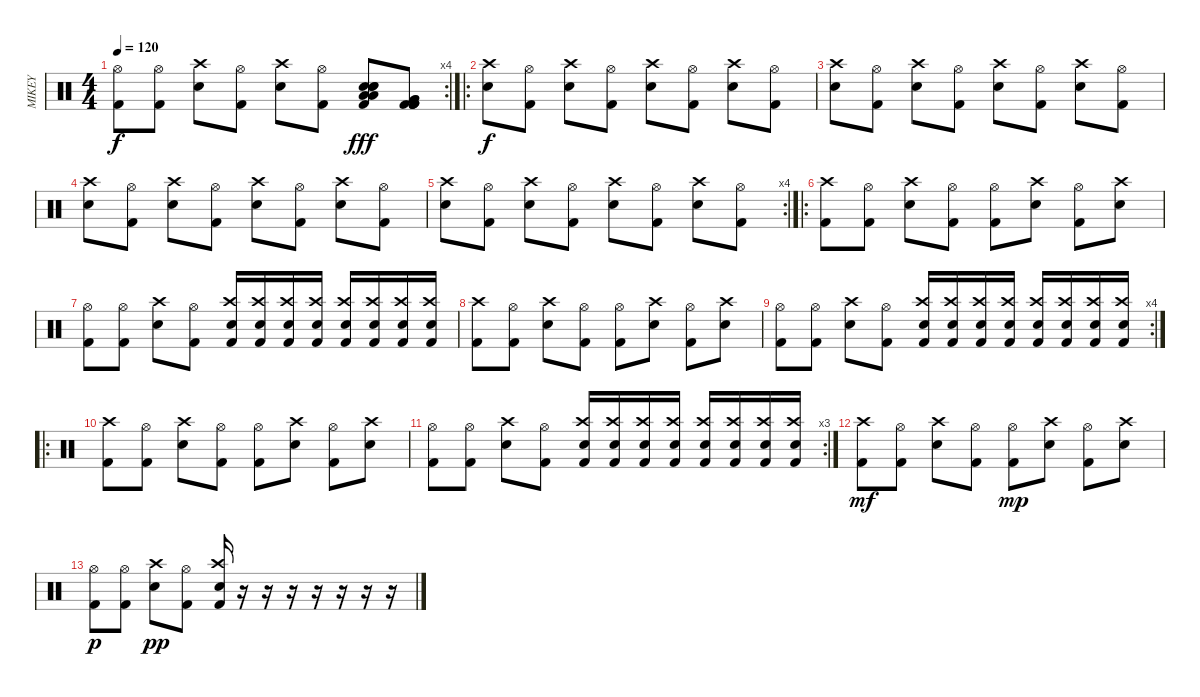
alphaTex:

\track ("MIKEY" "MIKEY") {instrument percussion}
\staff {score}
\articulation defaults
\rc 4
\ts (4 4)
\tempo 120
\clef neutral
\ks c
("Hi-Hat (open)" "Kick (hit) 2").8{dy f} ("Hi-Hat (open)" "Kick (hit) 2").8 ("Crash high (hit)" "Snare (hit) 2").8 ("Hi-Hat (open)" "Kick (hit) 2").8 ("Crash high (hit)" "Snare (hit) 2").8 ("Hi-Hat (open)" "Kick (hit) 2").8 ("Snare (hit) 2" "Snare (hit) 2" "Kick (hit) 2" "Low Tom (hit)" "Low Tom (hit)" "Snare (hit) 2").8{dy fff} ("Kick (hit) 2" "Kick (hit) 2" "Kick (hit) 2" "Very Low Tom (hit)" "Very Low Tom (hit)" "Kick (hit) 2").8 |
\ro
("Crash high (hit)" "Snare (hit) 2").8{dy f} ("Hi-Hat (open)" "Kick (hit) 2").8 ("Crash high (hit)" "Snare (hit) 2").8 ("Hi-Hat (open)" "Kick (hit) 2").8 ("Crash high (hit)" "Snare (hit) 2").8 ("Hi-Hat (open)" "Kick (hit) 2").8 ("Crash high (hit)" "Snare (hit) 2").8 ("Hi-Hat (open)" "Kick (hit) 2").8 |
("Crash high (hit)" "Snare (hit) 2").8 ("Hi-Hat (open)" "Kick (hit) 2").8 ("Crash high (hit)" "Snare (hit) 2").8 ("Hi-Hat (open)" "Kick (hit) 2").8 ("Crash high (hit)" "Snare (hit) 2").8 ("Hi-Hat (open)" "Kick (hit) 2").8 ("Crash high (hit)" "Snare (hit) 2").8 ("Hi-Hat (open)" "Kick (hit) 2").8 |
("Crash high (hit)" "Snare (hit) 2").8 ("Hi-Hat (open)" "Kick (hit) 2").8 ("Crash high (hit)" "Snare (hit) 2").8 ("Hi-Hat (open)" "Kick (hit) 2").8 ("Crash high (hit)" "Snare (hit) 2").8 ("Hi-Hat (open)" "Kick (hit) 2").8 ("Crash high (hit)" "Snare (hit) 2").8 ("Hi-Hat (open)" "Kick (hit) 2").8 |
\rc 4
("Crash high (hit)" "Snare (hit) 2").8 ("Hi-Hat (open)" "Kick (hit) 2").8 ("Crash high (hit)" "Snare (hit) 2").8 ("Hi-Hat (open)" "Kick (hit) 2").8 ("Crash high (hit)" "Snare (hit) 2").8 ("Hi-Hat (open)" "Kick (hit) 2").8 ("Crash high (hit)" "Snare (hit) 2").8 ("Hi-Hat (open)" "Kick (hit) 2").8 |
\ro
("Crash high (hit)" "Kick (hit) 2").8 ("Hi-Hat (open)" "Kick (hit) 2").8 ("Crash high (hit)" "Snare (hit) 2").8 ("Hi-Hat (open)" "Kick (hit) 2").8 ("Hi-Hat (open)" "Kick (hit) 2").8 ("Crash high (hit)" "Snare (hit) 2").8 ("Hi-Hat (open)" "Kick (hit) 2").8 ("Crash high (hit)" "Snare (hit) 2").8 |
("Hi-Hat (open)" "Kick (hit) 2").8 ("Hi-Hat (open)" "Kick (hit) 2").8 ("Crash high (hit)" "Snare (hit) 2").8 ("Hi-Hat (open)" "Kick (hit) 2").8 ("Crash high (hit)" "Kick (hit) 2" "Snare (hit) 2").16 ("Crash high (hit)" "Kick (hit) 2" "Snare (hit) 2").16 ("Crash high (hit)" "Kick (hit) 2" "Snare (hit) 2").16 ("Crash high (hit)" "Kick (hit) 2" "Snare (hit) 2").16 ("Crash high (hit)" "Kick (hit) 2" "Snare (hit) 2").16 ("Crash high (hit)" "Kick (hit) 2" "Snare (hit) 2").16 ("Crash high (hit)" "Kick (hit) 2" "Snare (hit) 2").16 ("Crash high (hit)" "Kick (hit) 2" "Snare (hit) 2").16 |
("Crash high (hit)" "Kick (hit) 2").8 ("Hi-Hat (open)" "Kick (hit) 2").8 ("Crash high (hit)" "Snare (hit) 2").8 ("Hi-Hat (open)" "Kick (hit) 2").8 ("Hi-Hat (open)" "Kick (hit) 2").8 ("Crash high (hit)" "Snare (hit) 2").8 ("Hi-Hat (open)" "Kick (hit) 2").8 ("Crash high (hit)" "Snare (hit) 2").8 |
\rc 4
("Hi-Hat (open)" "Kick (hit) 2").8 ("Hi-Hat (open)" "Kick (hit) 2").8 ("Crash high (hit)" "Snare (hit) 2").8 ("Hi-Hat (open)" "Kick (hit) 2").8 ("Crash high (hit)" "Kick (hit) 2" "Snare (hit) 2").16 ("Crash high (hit)" "Kick (hit) 2" "Snare (hit) 2").16 ("Crash high (hit)" "Kick (hit) 2" "Snare (hit) 2").16 ("Crash high (hit)" "Kick (hit) 2" "Snare (hit) 2").16 ("Crash high (hit)" "Kick (hit) 2" "Snare (hit) 2").16 ("Crash high (hit)" "Kick (hit) 2" "Snare (hit) 2").16 ("Crash high (hit)" "Kick (hit) 2" "Snare (hit) 2").16 ("Crash high (hit)" "Kick (hit) 2" "Snare (hit) 2").16 |
\ro
("Crash high (hit)" "Kick (hit) 2").8 ("Hi-Hat (open)" "Kick (hit) 2").8 ("Crash high (hit)" "Snare (hit) 2").8 ("Hi-Hat (open)" "Kick (hit) 2").8 ("Hi-Hat (open)" "Kick (hit) 2").8 ("Crash high (hit)" "Snare (hit) 2").8 ("Hi-Hat (open)" "Kick (hit) 2").8 ("Crash high (hit)" "Snare (hit) 2").8 |
\rc 3
("Hi-Hat (open)" "Kick (hit) 2").8 ("Hi-Hat (open)" "Kick (hit) 2").8 ("Crash high (hit)" "Snare (hit) 2").8 ("Hi-Hat (open)" "Kick (hit) 2").8 ("Crash high (hit)" "Kick (hit) 2" "Snare (hit) 2").16 ("Crash high (hit)" "Kick (hit) 2" "Snare (hit) 2").16 ("Crash high (hit)" "Kick (hit) 2" "Snare (hit) 2").16 ("Crash high (hit)" "Kick (hit) 2" "Snare (hit) 2").16 ("Crash high (hit)" "Kick (hit) 2" "Snare (hit) 2").16 ("Crash high (hit)" "Kick (hit) 2" "Snare (hit) 2").16 ("Crash high (hit)" "Kick (hit) 2" "Snare (hit) 2").16 ("Crash high (hit)" "Kick (hit) 2" "Snare (hit) 2").16 |
("Crash high (hit)" "Kick (hit) 2").8{dy mf} ("Hi-Hat (open)" "Kick (hit) 2").8 ("Crash high (hit)" "Snare (hit) 2").8 ("Hi-Hat (open)" "Kick (hit) 2").8 ("Hi-Hat (open)" "Kick (hit) 2").8{dy mp} ("Crash high (hit)" "Snare (hit) 2").8 ("Hi-Hat (open)" "Kick (hit) 2").8 ("Crash high (hit)" "Snare (hit) 2").8 |
("Hi-Hat (open)" "Kick (hit) 2").8{dy p} ("Hi-Hat (open)" "Kick (hit) 2").8 ("Crash high (hit)" "Snare (hit) 2").8{dy pp} ("Hi-Hat (open)" "Kick (hit) 2").8 ("Crash high (hit)" "Kick (hit) 2" "Snare (hit) 2").16 r.16 r.16 r.16 r.16 r.16 r.16 r.16
